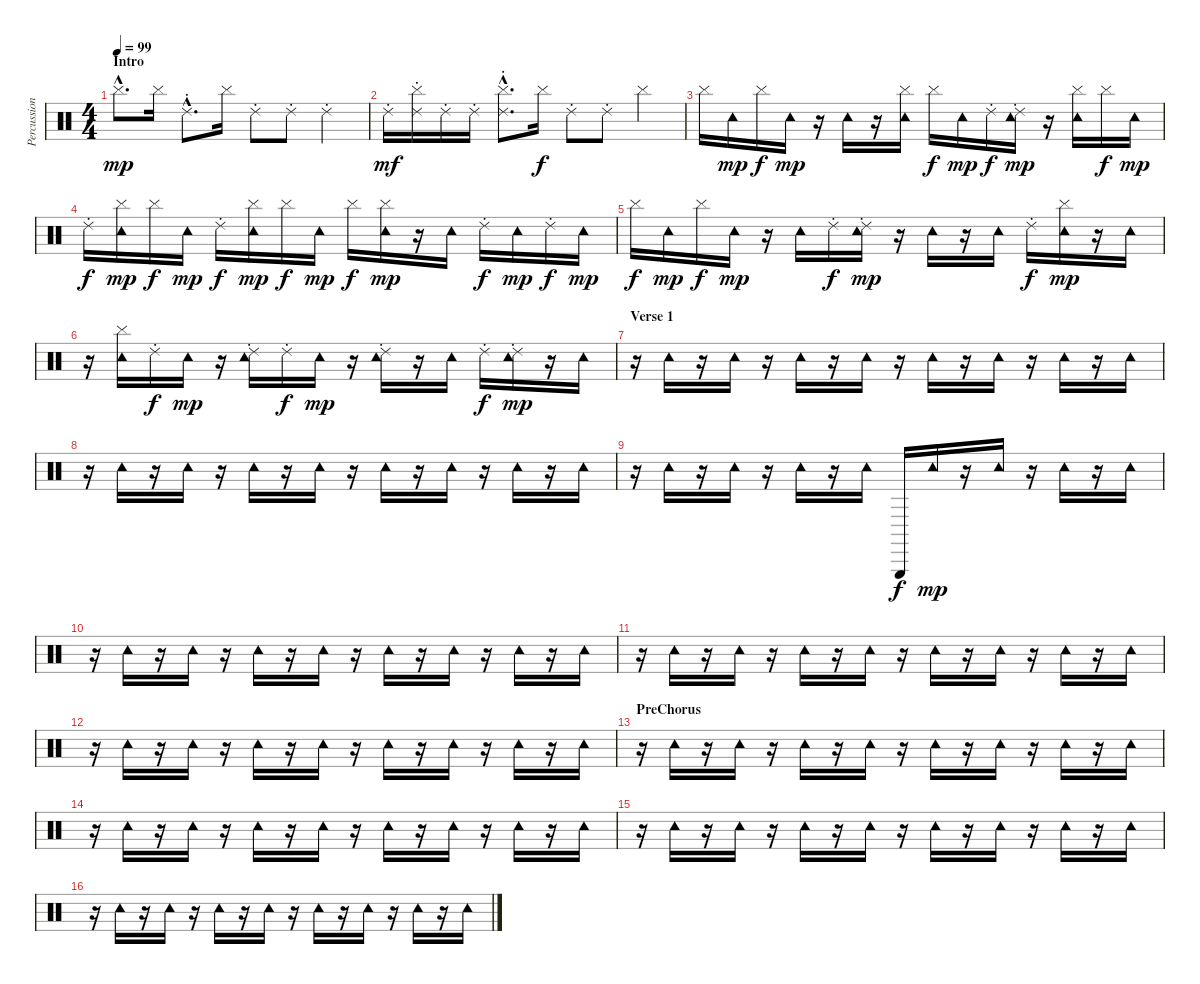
\track ("Percussion" "Percussion") {instrument percussion}
\staff {score}
\articulation defaults
\ts (4 4)
\section ("" "Intro")
\tempo 99
\clef neutral
\ks c "Cymbal (hit)"{hac}.8{d dy mp} "Cymbal (hit)".16 "Ride (choke) 2"{hac}.8{d} "Cymbal (hit)".16 "Ride (choke) 2".8 "Ride (choke) 2".8 "Ride (choke) 2".4
|
"Ride (choke) 2".16{dy mf} ("Ride (choke) 2" "Cymbal (hit)").16 "Ride (choke) 2".16 "Ride (choke) 2".16 ("Ride (choke) 2"{hac} "Cymbal (hit)"{hac}).8{d} "Cymbal (hit)".16{dy f} "Ride (choke) 2".8 "Ride (choke) 2".8 "Cymbal (hit)".4 |
"Cymbal (hit)".16 "Tambourine (hit)".16{dy mp} "Cymbal (hit)".16{dy f} "Tambourine (hit)".16{dy mp} r.16 "Tambourine (hit)".16 r.16 ("Tambourine (hit)" "Cymbal (hit)").16 "Cymbal (hit)".16{dy f} "Tambourine (hit)".16{dy mp} "Ride (choke) 2".16{dy f} ("Tambourine (hit)" "Ride (choke) 2").16{dy mp} r.16 ("Tambourine (hit)" "Cymbal (hit)").16 "Cymbal (hit)".16{dy f} "Tambourine (hit)".16{dy mp} |
"Ride (choke) 2".16{dy f} ("Tambourine (hit)" "Cymbal (hit)").16{dy mp} "Cymbal (hit)".16{dy f} "Tambourine (hit)".16{dy mp} "Ride (choke) 2".16{dy f} ("Tambourine (hit)" "Cymbal (hit)").16{dy mp} "Cymbal (hit)".16{dy f} "Tambourine (hit)".16{dy mp} "Cymbal (hit)".16{dy f} ("Tambourine (hit)" "Cymbal (hit)").16{dy mp} r.16 "Tambourine (hit)".16 "Ride (choke) 2".16{dy f} "Tambourine (hit)".16{dy mp} "Ride (choke) 2".16{dy f} "Tambourine (hit)".16{dy mp} |
"Cymbal (hit)".16{dy f} "Tambourine (hit)".16{dy mp} "Cymbal (hit)".16{dy f} "Tambourine (hit)".16{dy mp} r.16 "Tambourine (hit)".16 "Ride (choke) 2".16{dy f} ("Tambourine (hit)" "Ride (choke) 2").16{dy mp} r.16 "Tambourine (hit)".16 r.16 "Tambourine (hit)".16 "Ride (choke) 2".16{dy f} ("Tambourine (hit)" "Cymbal (hit)").16{dy mp} r.16 "Tambourine (hit)".16 |
r.16 ("Tambourine (hit)" "Cymbal (hit)").16 "Ride (choke) 2".16{dy f} "Tambourine (hit)".16{dy mp} r.16 ("Tambourine (hit)" "Ride (choke) 2").16 "Ride (choke) 2".16{dy f} "Tambourine (hit)".16{dy mp} r.16 ("Tambourine (hit)" "Ride (choke) 2").16 r.16 "Tambourine (hit)".16 "Ride (choke) 2".16{dy f} ("Tambourine (hit)" "Ride (choke) 2").16{dy mp} r.16 "Tambourine (hit)".16 |
\section ("" "Verse 1")
r.16 "Tambourine (hit)".16 r.16 "Tambourine (hit)".16 r.16 "Tambourine (hit)".16 r.16 "Tambourine (hit)".16 r.16 "Tambourine (hit)".16 r.16 "Tambourine (hit)".16 r.16 "Tambourine (hit)".16 r.16 "Tambourine (hit)".16 |
r.16 "Tambourine (hit)".16 r.16 "Tambourine (hit)".16 r.16 "Tambourine (hit)".16 r.16 "Tambourine (hit)".16 r.16 "Tambourine (hit)".16 r.16 "Tambourine (hit)".16 r.16 "Tambourine (hit)".16 r.16 "Tambourine (hit)".16 |
r.16 "Tambourine (hit)".16 r.16 "Tambourine (hit)".16 r.16 "Tambourine (hit)".16 r.16 "Tambourine (hit)".16 "Triangle (hit)".16{dy f} "Tambourine (hit)".16{dy mp} r.16 "Tambourine (hit)".16 r.16 "Tambourine (hit)".16 r.16 "Tambourine (hit)".16 |
r.16 "Tambourine (hit)".16 r.16 "Tambourine (hit)".16 r.16 "Tambourine (hit)".16 r.16 "Tambourine (hit)".16 r.16 "Tambourine (hit)".16 r.16 "Tambourine (hit)".16 r.16 "Tambourine (hit)".16 r.16 "Tambourine (hit)".16 |
r.16 "Tambourine (hit)".16 r.16 "Tambourine (hit)".16 r.16 "Tambourine (hit)".16 r.16 "Tambourine (hit)".16 r.16 "Tambourine (hit)".16 r.16 "Tambourine (hit)".16 r.16 "Tambourine (hit)".16 r.16 "Tambourine (hit)".16 |
r.16 "Tambourine (hit)".16 r.16 "Tambourine (hit)".16 r.16 "Tambourine (hit)".16 r.16 "Tambourine (hit)".16 r.16 "Tambourine (hit)".16 r.16 "Tambourine (hit)".16 r.16 "Tambourine (hit)".16 r.16 "Tambourine (hit)".16 |
\section ("" "PreChorus")
r.16 "Tambourine (hit)".16 r.16 "Tambourine (hit)".16 r.16 "Tambourine (hit)".16 r.16 "Tambourine (hit)".16 r.16 "Tambourine (hit)".16 r.16 "Tambourine (hit)".16 r.16 "Tambourine (hit)".16 r.16 "Tambourine (hit)".16 |
r.16 "Tambourine (hit)".16 r.16 "Tambourine (hit)".16 r.16 "Tambourine (hit)".16 r.16 "Tambourine (hit)".16 r.16 "Tambourine (hit)".16 r.16 "Tambourine (hit)".16 r.16 "Tambourine (hit)".16 r.16 "Tambourine (hit)".16 |
r.16 "Tambourine (hit)".16 r.16 "Tambourine (hit)".16 r.16 "Tambourine (hit)".16 r.16 "Tambourine (hit)".16 r.16 "Tambourine (hit)".16 r.16 "Tambourine (hit)".16 r.16 "Tambourine (hit)".16 r.16 "Tambourine (hit)".16 |
r.16 "Tambourine (hit)".16 r.16 "Tambourine (hit)".16 r.16 "Tambourine (hit)".16 r.16 "Tambourine (hit)".16 r.16 "Tambourine (hit)".16 r.16 "Tambourine (hit)".16 r.16 "Tambourine (hit)".16 r.16 "Tambourine (hit)".16
